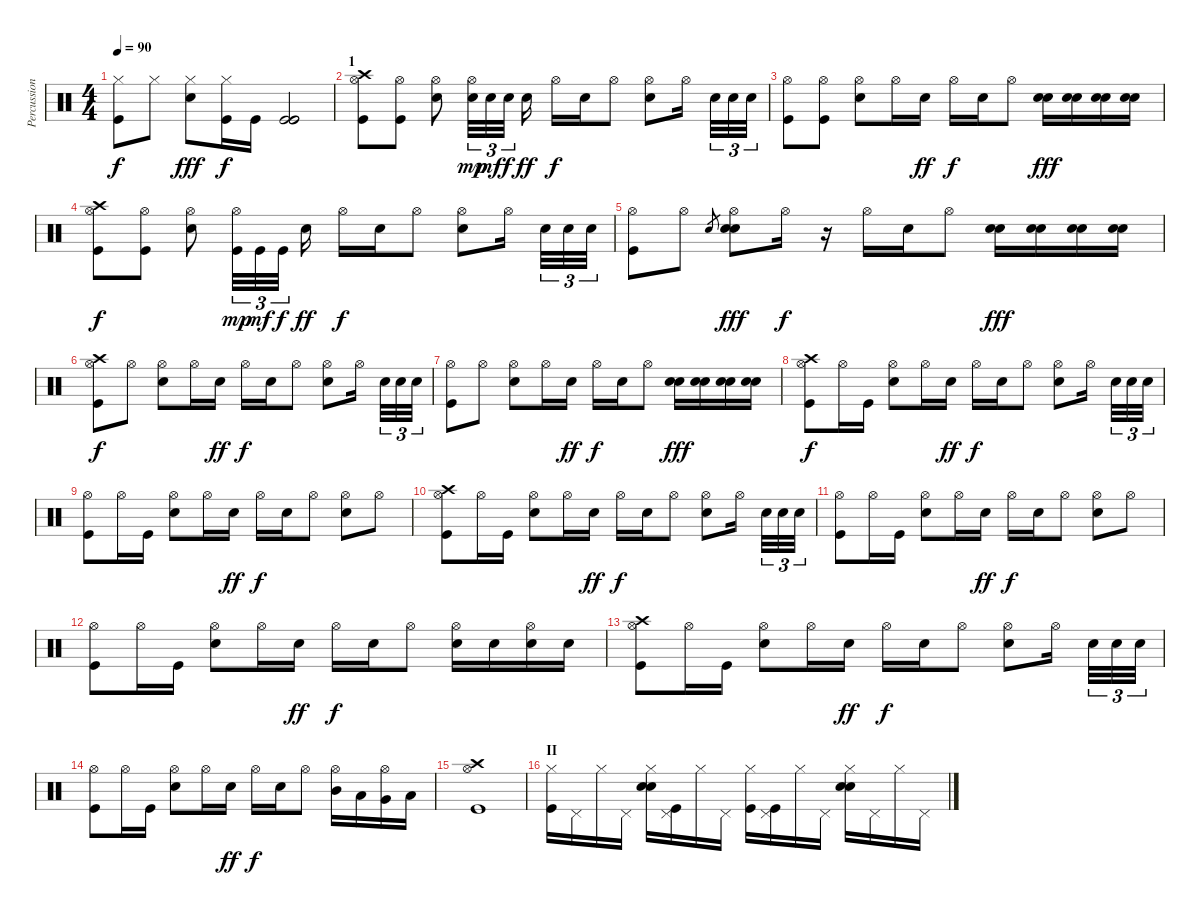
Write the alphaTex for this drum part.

\track ("Percussions" "Percussion") {instrument percussion}
\staff {score}
\articulation defaults
\ts (4 4)
\tempo 90
\clef neutral
\ks c
("Hi-Hat (closed)" "Kick (hit)").8{dy f} "Hi-Hat (closed)".8 ("Hi-Hat (closed)" "Snare (hit) 2").8{dy fff} ("Hi-Hat (closed)" "Kick (hit)").16{dy f} "Kick (hit)".16 ("Kick (hit)" "Kick (hit)" "Kick (hit)").2 |
\section ("" "1")
("Hi-Hat (open)" "Crash high (hit)" "Kick (hit)").8 ("Hi-Hat (open)" "Kick (hit)").8 ("Hi-Hat (open)" "Snare (hit) 2").8 ("Hi-Hat (open)" "Snare (hit) 2").32{tu (3 2) dy mp} "Snare (hit) 2".32{tu (3 2) dy mf} "Snare (hit) 2".32{tu (3 2) dy f} "Snare (hit) 2".16{dy ff} "Hi-Hat (open)".16{dy f} "Snare (hit) 2".16 "Hi-Hat (open)".8 ("Hi-Hat (open)" "Snare (hit) 2").8 "Hi-Hat (open)".16 "Snare (hit) 2".32{tu (3 2)} "Snare (hit) 2".32{tu (3 2)} "Snare (hit) 2".32{tu (3 2)} |
("Hi-Hat (open)" "Kick (hit)").8 ("Hi-Hat (open)" "Kick (hit)").8 ("Hi-Hat (open)" "Snare (hit) 2").8 "Hi-Hat (open)".16 "Snare (hit) 2".16{dy ff} "Hi-Hat (open)".16{dy f} "Snare (hit) 2".16 "Hi-Hat (open)".8 ("Snare (hit) 2" "Snare (hit) 2").16{dy fff} ("Snare (hit) 2" "Snare (hit) 2").16 ("Snare (hit) 2" "Snare (hit) 2").16 ("Snare (hit) 2" "Snare (hit) 2").16 |
("Hi-Hat (open)" "Crash high (hit)" "Kick (hit)").8{dy f} ("Hi-Hat (open)" "Kick (hit)").8 ("Hi-Hat (open)" "Snare (hit) 2").8 ("Hi-Hat (open)" "Kick (hit)").32{tu (3 2) dy mp} "Kick (hit)".32{tu (3 2) dy mf} "Kick (hit)".32{tu (3 2) dy f} "Snare (hit) 2".16{dy ff} "Hi-Hat (open)".16{dy f} "Snare (hit) 2".16 "Hi-Hat (open)".8 ("Hi-Hat (open)" "Snare (hit) 2").8 "Hi-Hat (open)".16 "Snare (hit) 2".32{tu (3 2)} "Snare (hit) 2".32{tu (3 2)} "Snare (hit) 2".32{tu (3 2)} |
("Hi-Hat (open)" "Kick (hit)").8 "Hi-Hat (open)".8 "Snare (hit) 2".8{gr} ("Hi-Hat (open)" "Electric Snare (hit)" "Snare (hit) 2").8{dy fff} "Hi-Hat (open)".16{dy f} r.16 "Hi-Hat (open)".16 "Snare (hit) 2".16 "Hi-Hat (open)".8 ("Snare (hit) 2" "Snare (hit) 2").16{dy fff} ("Snare (hit) 2" "Snare (hit) 2").16 ("Snare (hit) 2" "Snare (hit) 2").16 ("Snare (hit) 2" "Snare (hit) 2").16 |
("Hi-Hat (open)" "Crash high (hit)" "Kick (hit)").8{dy f} "Hi-Hat (open)".8 ("Hi-Hat (open)" "Snare (hit) 2").8 "Hi-Hat (open)".16 "Snare (hit) 2".16{dy ff} "Hi-Hat (open)".16{dy f} "Snare (hit) 2".16 "Hi-Hat (open)".8 ("Hi-Hat (open)" "Snare (hit) 2").8 "Hi-Hat (open)".16 "Snare (hit) 2".32{tu (3 2)} "Snare (hit) 2".32{tu (3 2)} "Snare (hit) 2".32{tu (3 2)} |
("Hi-Hat (open)" "Kick (hit)").8 "Hi-Hat (open)".8 ("Hi-Hat (open)" "Snare (hit) 2").8 "Hi-Hat (open)".16 "Snare (hit) 2".16{dy ff} "Hi-Hat (open)".16{dy f} "Snare (hit) 2".16 "Hi-Hat (open)".8 ("Snare (hit) 2" "Snare (hit) 2").16{dy fff} ("Snare (hit) 2" "Snare (hit) 2").16 ("Snare (hit) 2" "Snare (hit) 2").16 ("Snare (hit) 2" "Snare (hit) 2").16 |
("Hi-Hat (open)" "Crash high (hit)" "Kick (hit)").8{dy f} "Hi-Hat (open)".16 "Kick (hit)".16 ("Hi-Hat (open)" "Snare (hit) 2").8 "Hi-Hat (open)".16 "Snare (hit) 2".16{dy ff} "Hi-Hat (open)".16{dy f} "Snare (hit) 2".16 "Hi-Hat (open)".8 ("Hi-Hat (open)" "Snare (hit) 2").8 "Hi-Hat (open)".16 "Snare (hit) 2".32{tu (3 2)} "Snare (hit) 2".32{tu (3 2)} "Snare (hit) 2".32{tu (3 2)} |
("Hi-Hat (open)" "Kick (hit)").8 "Hi-Hat (open)".16 "Kick (hit)".16 ("Hi-Hat (open)" "Snare (hit) 2").8 "Hi-Hat (open)".16 "Snare (hit) 2".16{dy ff} "Hi-Hat (open)".16{dy f} "Snare (hit) 2".16 "Hi-Hat (open)".8 ("Hi-Hat (open)" "Snare (hit) 2").8 "Hi-Hat (open)".8 |
("Hi-Hat (open)" "Crash high (hit)" "Kick (hit)").8 "Hi-Hat (open)".16 "Kick (hit)".16 ("Hi-Hat (open)" "Snare (hit) 2").8 "Hi-Hat (open)".16 "Snare (hit) 2".16{dy ff} "Hi-Hat (open)".16{dy f} "Snare (hit) 2".16 "Hi-Hat (open)".8 ("Hi-Hat (open)" "Snare (hit) 2").8 "Hi-Hat (open)".16 "Snare (hit) 2".32{tu (3 2)} "Snare (hit) 2".32{tu (3 2)} "Snare (hit) 2".32{tu (3 2)} |
("Hi-Hat (open)" "Kick (hit)").8 "Hi-Hat (open)".16 "Kick (hit)".16 ("Hi-Hat (open)" "Snare (hit) 2").8 "Hi-Hat (open)".16 "Snare (hit) 2".16{dy ff} "Hi-Hat (open)".16{dy f} "Snare (hit) 2".16 "Hi-Hat (open)".8 ("Hi-Hat (open)" "Snare (hit) 2").8 "Hi-Hat (open)".8 |
("Hi-Hat (open)" "Kick (hit)").8 "Hi-Hat (open)".16 "Kick (hit)".16 ("Hi-Hat (open)" "Snare (hit) 2").8 "Hi-Hat (open)".16 "Snare (hit) 2".16{dy ff} "Hi-Hat (open)".16{dy f} "Snare (hit) 2".16 "Hi-Hat (open)".8 ("Hi-Hat (open)" "Snare (hit) 2").16 "Snare (hit) 2".16 ("Hi-Hat (open)" "Snare (hit) 2").16 "Snare (hit) 2".16 |
("Hi-Hat (open)" "Crash high (hit)" "Kick (hit)").8 "Hi-Hat (open)".16 "Kick (hit)".16 ("Hi-Hat (open)" "Snare (hit) 2").8 "Hi-Hat (open)".16 "Snare (hit) 2".16{dy ff} "Hi-Hat (open)".16{dy f} "Snare (hit) 2".16 "Hi-Hat (open)".8 ("Hi-Hat (open)" "Snare (hit) 2").8 "Hi-Hat (open)".16 "Snare (hit) 2".32{tu (3 2)} "Snare (hit) 2".32{tu (3 2)} "Snare (hit) 2".32{tu (3 2)} |
("Hi-Hat (open)" "Kick (hit)").8 "Hi-Hat (open)".16 "Kick (hit)".16 ("Hi-Hat (open)" "Snare (hit) 2").8 "Hi-Hat (open)".16 "Snare (hit) 2".16{dy ff} "Hi-Hat (open)".16{dy f} "Snare (hit) 2".16 "Hi-Hat (open)".8 ("Hi-Hat (open)" "Mid Tom (hit)").16 "Low Tom (hit)".16 ("Hi-Hat (open)" "Very Low Tom (hit)").16 "Low Floor Tom (hit)".16 |
("Hi-Hat (open)" "Crash high (hit)" "Kick (hit)").1 |
\section ("" "II")
("Hi-Hat (closed)" "Kick (hit)").16 "Pedal Hi-Hat (hit)".16 "Hi-Hat (closed)".16 "Pedal Hi-Hat (hit)".16 ("Hi-Hat (closed)" "Electric Snare (hit)" "Snare (hit) 2").16 ("Pedal Hi-Hat (hit)" "Kick (hit)").16 "Hi-Hat (closed)".16 "Pedal Hi-Hat (hit)".16 ("Hi-Hat (closed)" "Kick (hit)").16 ("Pedal Hi-Hat (hit)" "Kick (hit)").16 "Hi-Hat (closed)".16 "Pedal Hi-Hat (hit)".16 ("Hi-Hat (closed)" "Electric Snare (hit)" "Snare (hit) 2").16 "Pedal Hi-Hat (hit)".16 "Hi-Hat (closed)".16 "Pedal Hi-Hat (hit)".16
